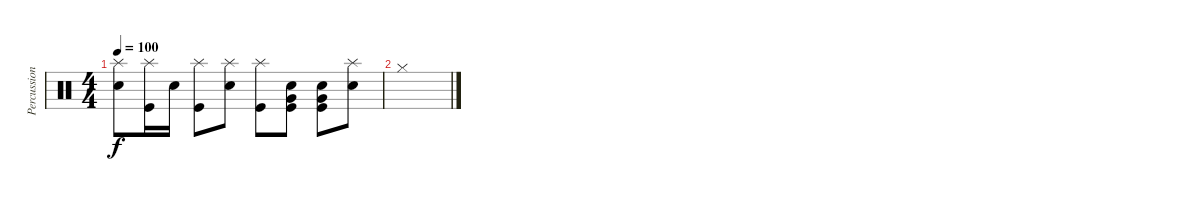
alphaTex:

\track ("Percussions" "Percussion") {instrument percussion}
\staff {score}
\articulation defaults
\ts (4 4)
\tempo 100
\clef neutral
\ks c
("Splash (hit)" "Snare (hit) 2").8{dy f} ("Splash (hit)" "Kick (hit)").16 "Snare (hit) 2".16 ("Splash (hit)" "Kick (hit)").8 ("Splash (hit)" "Snare (hit) 2").8 ("Splash (hit)" "Kick (hit)").8 ("Snare (hit) 2" "Very Low Tom (hit)" "Kick (hit)").8 ("Snare (hit) 2" "Very Low Tom (hit)" "Kick (hit)").8 ("Splash (hit)" "Snare (hit) 2").8 |
"Hi-Hat (closed)".1
